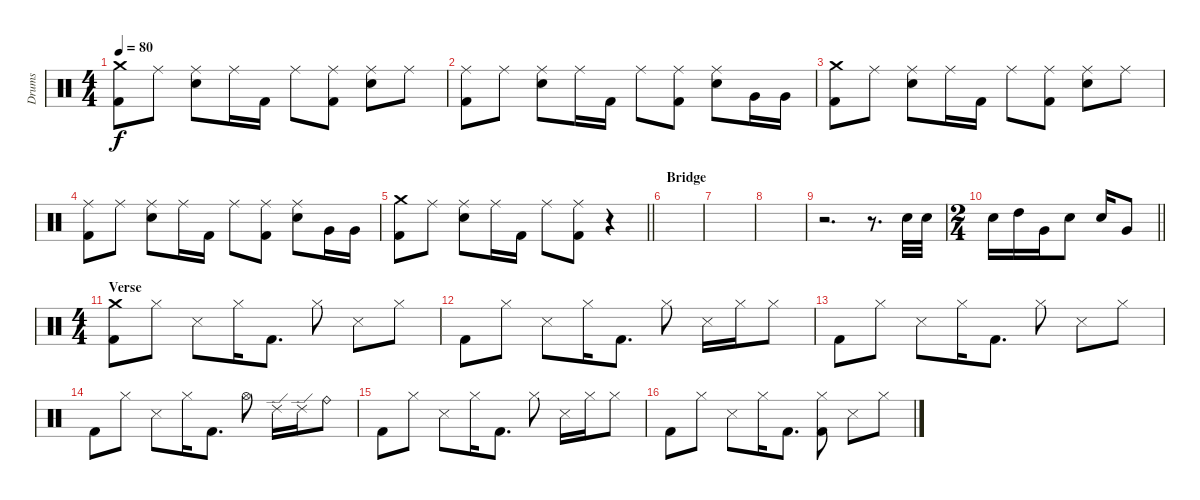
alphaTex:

\track ("Drums" "Drums") {instrument percussion}
\staff {score}
\articulation defaults
\ts (4 4)
\tempo 80
\clef neutral
\ks c
("Crash medium (hit)" "Kick (hit) 2").8{dy f} "Ride (middle)".8 ("Ride (middle)" "Snare (hit) 2").8 "Ride (middle)".16 "Kick (hit) 2".16 "Ride (middle)".8 ("Ride (middle)" "Kick (hit) 2").8 ("Ride (middle)" "Snare (hit) 2").8 "Ride (middle)".8 |
("Ride (middle)" "Kick (hit) 2").8 "Ride (middle)".8 ("Ride (middle)" "Snare (hit) 2").8 "Ride (middle)".16 "Kick (hit) 2".16 "Ride (middle)".8 ("Ride (middle)" "Kick (hit) 2").8 ("Ride (middle)" "Snare (hit) 2").8 "Very Low Tom (hit)".16 "Very Low Tom (hit)".16 |
("Crash medium (hit)" "Kick (hit) 2").8 "Ride (middle)".8 ("Ride (middle)" "Snare (hit) 2").8 "Ride (middle)".16 "Kick (hit) 2".16 "Ride (middle)".8 ("Ride (middle)" "Kick (hit) 2").8 ("Ride (middle)" "Snare (hit) 2").8 "Ride (middle)".8 |
("Ride (middle)" "Kick (hit) 2").8 "Ride (middle)".8 ("Ride (middle)" "Snare (hit) 2").8 "Ride (middle)".16 "Kick (hit) 2".16 "Ride (middle)".8 ("Ride (middle)" "Kick (hit) 2").8 ("Ride (middle)" "Snare (hit) 2").8 "Very Low Tom (hit)".16 "Very Low Tom (hit)".16 |
\barLineRight lightlight
("Crash medium (hit)" "Kick (hit) 2").8 "Ride (middle)".8 ("Ride (middle)" "Snare (hit) 2").8 "Ride (middle)".16 "Kick (hit) 2".16 "Ride (middle)".8 ("Ride (middle)" "Kick (hit) 2").8 r.4 |
\section ("" "Bridge")
|
|
|
r.2{d} r.8{d} "Snare (hit) 2".32 "Snare (hit) 2".32 |
\ts (2 4)
\barLineRight lightlight "Snare (hit) 2".16 "High Tom (hit)".16 "Very Low Tom (hit)".16 "Snare (hit) 2".8 "Snare (hit) 2".16 "Very Low Tom (hit)".8
|
\ts (4 4)
\section ("" "Verse")
("Crash medium (hit)" "Kick (hit) 2").8 "Hi-Hat (closed)".8 "Snare (side stick) 3".8 "Hi-Hat (closed)".16 "Kick (hit) 2".8{d} "Hi-Hat (closed)".8 "Snare (side stick) 3".8 "Hi-Hat (closed)".8 |
"Kick (hit) 2".8 "Hi-Hat (closed)".8 "Snare (side stick) 3".8 "Hi-Hat (closed)".16 "Kick (hit) 2".8{d} "Hi-Hat (closed)".8 "Snare (side stick) 3".16 "Hi-Hat (closed)".16 "Hi-Hat (closed)".8 |
"Kick (hit) 2".8 "Hi-Hat (closed)".8 "Snare (side stick) 3".8 "Hi-Hat (closed)".16 "Kick (hit) 2".8{d} "Hi-Hat (closed)".8 "Snare (side stick) 3".8 "Hi-Hat (closed)".8 |
"Kick (hit) 2".8 "Hi-Hat (closed)".8 "Snare (side stick) 3".8 "Hi-Hat (closed)".16 "Kick (hit) 2".8{d} "Hi-Hat (open)".8 "Ride (edge) 2".16 "Ride (edge) 2".16 "Ride (bell)".8 |
"Kick (hit) 2".8 "Hi-Hat (closed)".8 "Snare (side stick) 3".8 "Hi-Hat (closed)".16 "Kick (hit) 2".8{d} "Hi-Hat (closed)".8 "Snare (side stick) 3".16 "Hi-Hat (closed)".16 "Hi-Hat (closed)".8 |
"Kick (hit) 2".8 "Hi-Hat (closed)".8 "Snare (side stick) 3".8 "Hi-Hat (closed)".16 "Kick (hit) 2".8{d} ("Hi-Hat (closed)" "Kick (hit) 2").8 "Snare (side stick) 3".8 "Hi-Hat (closed)".8
